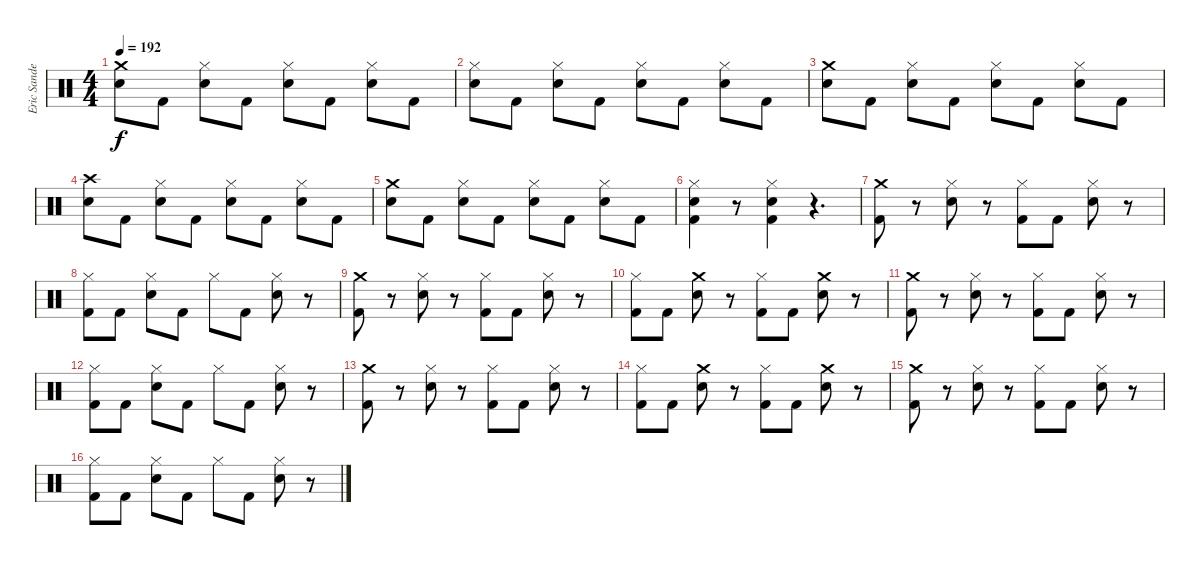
\track ("Eric Sanden" "Eric Sande") {instrument percussion}
\staff {score}
\articulation defaults
\ts (4 4)
\tempo 192
\clef neutral
\ks c
("Crash medium (hit)" "Snare (hit) 2").8{dy f} "Kick (hit) 2".8 ("Hi-Hat (closed)" "Snare (hit) 2").8 "Kick (hit) 2".8 ("Hi-Hat (closed)" "Snare (hit) 2").8 "Kick (hit) 2".8 ("Hi-Hat (closed)" "Snare (hit) 2").8 "Kick (hit) 2".8 |
("Hi-Hat (closed)" "Snare (hit) 2").8 "Kick (hit) 2".8 ("Hi-Hat (closed)" "Snare (hit) 2").8 "Kick (hit) 2".8 ("Hi-Hat (closed)" "Snare (hit) 2").8 "Kick (hit) 2".8 ("Hi-Hat (closed)" "Snare (hit) 2").8 "Kick (hit) 2".8 |
("Crash medium (hit)" "Snare (hit) 2").8 "Kick (hit) 2".8 ("Hi-Hat (closed)" "Snare (hit) 2").8 "Kick (hit) 2".8 ("Hi-Hat (closed)" "Snare (hit) 2").8 "Kick (hit) 2".8 ("Hi-Hat (closed)" "Snare (hit) 2").8 "Kick (hit) 2".8 |
("Crash high (hit)" "Snare (hit) 2").8 "Kick (hit) 2".8 ("Hi-Hat (closed)" "Snare (hit) 2").8 "Kick (hit) 2".8 ("Hi-Hat (closed)" "Snare (hit) 2").8 "Kick (hit) 2".8 ("Hi-Hat (closed)" "Snare (hit) 2").8 "Kick (hit) 2".8 |
("Crash medium (hit)" "Snare (hit) 2").8 "Kick (hit) 2".8 ("Hi-Hat (closed)" "Snare (hit) 2").8 "Kick (hit) 2".8 ("Hi-Hat (closed)" "Snare (hit) 2").8 "Kick (hit) 2".8 ("Hi-Hat (closed)" "Snare (hit) 2").8 "Kick (hit) 2".8 |
("Hi-Hat (closed)" "Snare (hit) 2" "Kick (hit) 2").4 r.8 ("Hi-Hat (closed)" "Snare (hit) 2" "Kick (hit) 2").4 r.4{d} |
("Crash medium (hit)" "Kick (hit) 2").8 r.8 ("Hi-Hat (closed)" "Snare (hit) 2").8 r.8 ("Hi-Hat (closed)" "Kick (hit) 2").8 "Kick (hit) 2".8 ("Hi-Hat (closed)" "Snare (hit) 2").8 r.8 |
("Hi-Hat (closed)" "Kick (hit) 2").8 "Kick (hit) 2".8 ("Hi-Hat (closed)" "Snare (hit) 2").8 "Kick (hit) 2".8 "Hi-Hat (closed)".8 "Kick (hit) 2".8 ("Hi-Hat (closed)" "Snare (hit) 2").8 r.8 |
("Crash medium (hit)" "Kick (hit) 2").8 r.8 ("Hi-Hat (closed)" "Snare (hit) 2").8 r.8 ("Hi-Hat (closed)" "Kick (hit) 2").8 "Kick (hit) 2".8 ("Hi-Hat (closed)" "Snare (hit) 2").8 r.8 |
("Hi-Hat (closed)" "Kick (hit) 2").8 "Kick (hit) 2".8 ("Crash medium (hit)" "Snare (hit) 2").8 r.8 ("Hi-Hat (closed)" "Kick (hit) 2").8 "Kick (hit) 2".8 ("Crash medium (hit)" "Snare (hit) 2").8 r.8 |
("Crash medium (hit)" "Kick (hit) 2").8 r.8 ("Hi-Hat (closed)" "Snare (hit) 2").8 r.8 ("Hi-Hat (closed)" "Kick (hit) 2").8 "Kick (hit) 2".8 ("Hi-Hat (closed)" "Snare (hit) 2").8 r.8 |
("Hi-Hat (closed)" "Kick (hit) 2").8 "Kick (hit) 2".8 ("Hi-Hat (closed)" "Snare (hit) 2").8 "Kick (hit) 2".8 "Hi-Hat (closed)".8 "Kick (hit) 2".8 ("Hi-Hat (closed)" "Snare (hit) 2").8 r.8 |
("Crash medium (hit)" "Kick (hit) 2").8 r.8 ("Hi-Hat (closed)" "Snare (hit) 2").8 r.8 ("Hi-Hat (closed)" "Kick (hit) 2").8 "Kick (hit) 2".8 ("Hi-Hat (closed)" "Snare (hit) 2").8 r.8 |
("Hi-Hat (closed)" "Kick (hit) 2").8 "Kick (hit) 2".8 ("Crash medium (hit)" "Snare (hit) 2").8 r.8 ("Hi-Hat (closed)" "Kick (hit) 2").8 "Kick (hit) 2".8 ("Crash medium (hit)" "Snare (hit) 2").8 r.8 |
("Crash medium (hit)" "Kick (hit) 2").8 r.8 ("Hi-Hat (closed)" "Snare (hit) 2").8 r.8 ("Hi-Hat (closed)" "Kick (hit) 2").8 "Kick (hit) 2".8 ("Hi-Hat (closed)" "Snare (hit) 2").8 r.8 |
("Hi-Hat (closed)" "Kick (hit) 2").8 "Kick (hit) 2".8 ("Hi-Hat (closed)" "Snare (hit) 2").8 "Kick (hit) 2".8 "Hi-Hat (closed)".8 "Kick (hit) 2".8 ("Hi-Hat (closed)" "Snare (hit) 2").8 r.8
